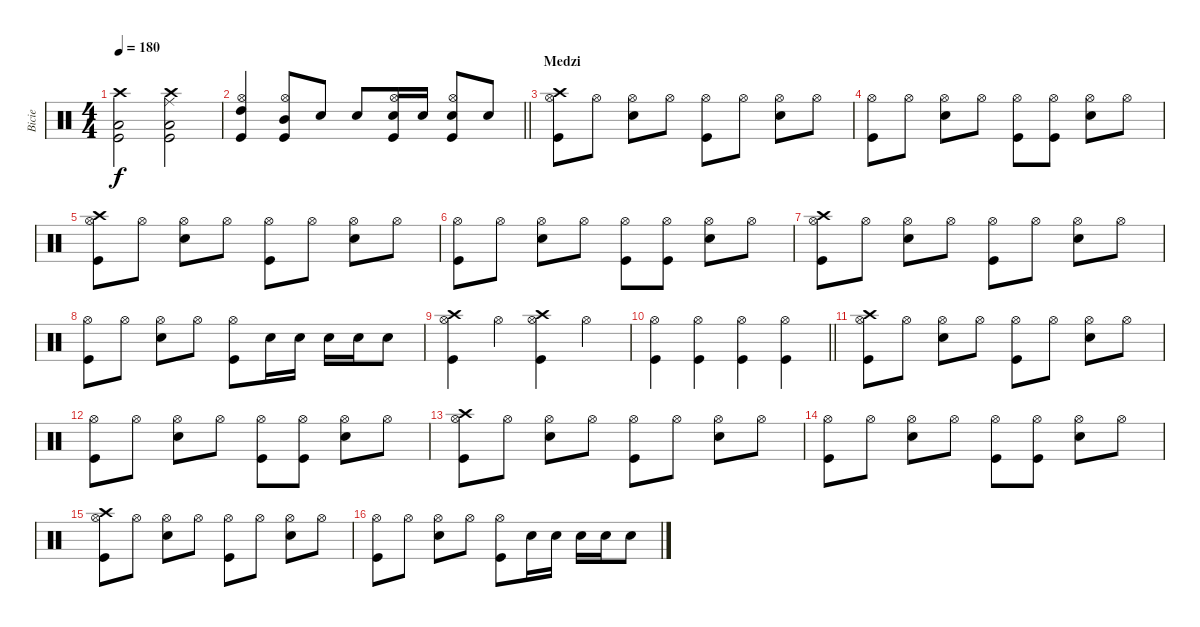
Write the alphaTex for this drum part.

\track ("Bicie" "Bicie") {instrument percussion}
\staff {score}
\articulation defaults
\ts (4 4)
\tempo 180
\clef neutral
\ks c
("Crash high (hit)" "Low Tom (hit)" "Kick (hit)").2{dy f} ("Crash high (hit)" "Ride (middle)" "Low Tom (hit)" "Kick (hit)").2 |
\barLineRight lightlight
("Hi-Hat (open)" "High Tom (hit)" "Kick (hit)").4 ("Hi-Hat (open)" "Mid Tom (hit)" "Kick (hit)").8 "Snare (hit) 2".8 "Snare (hit) 2".8 ("Hi-Hat (open)" "Snare (hit) 2" "Kick (hit)").16 "Snare (hit) 2".16 ("Hi-Hat (open)" "Snare (hit) 2" "Kick (hit)").8 "Snare (hit) 2".8 |
\section ("" "Medzi")
("Crash high (hit)" "Hi-Hat (open)" "Kick (hit)").8 "Hi-Hat (open)".8 ("Hi-Hat (open)" "Snare (hit) 2").8 "Hi-Hat (open)".8 ("Hi-Hat (open)" "Kick (hit)").8 "Hi-Hat (open)".8 ("Hi-Hat (open)" "Snare (hit) 2").8 "Hi-Hat (open)".8 |
("Hi-Hat (open)" "Kick (hit)").8 "Hi-Hat (open)".8 ("Hi-Hat (open)" "Snare (hit) 2").8 "Hi-Hat (open)".8 ("Hi-Hat (open)" "Kick (hit)").8 ("Hi-Hat (open)" "Kick (hit)").8 ("Hi-Hat (open)" "Snare (hit) 2").8 "Hi-Hat (open)".8 |
("Crash high (hit)" "Hi-Hat (open)" "Kick (hit)").8 "Hi-Hat (open)".8 ("Hi-Hat (open)" "Snare (hit) 2").8 "Hi-Hat (open)".8 ("Hi-Hat (open)" "Kick (hit)").8 "Hi-Hat (open)".8 ("Hi-Hat (open)" "Snare (hit) 2").8 "Hi-Hat (open)".8 |
("Hi-Hat (open)" "Kick (hit)").8 "Hi-Hat (open)".8 ("Hi-Hat (open)" "Snare (hit) 2").8 "Hi-Hat (open)".8 ("Hi-Hat (open)" "Kick (hit)").8 ("Hi-Hat (open)" "Kick (hit)").8 ("Hi-Hat (open)" "Snare (hit) 2").8 "Hi-Hat (open)".8 |
("Crash high (hit)" "Hi-Hat (open)" "Kick (hit)").8 "Hi-Hat (open)".8 ("Hi-Hat (open)" "Snare (hit) 2").8 "Hi-Hat (open)".8 ("Hi-Hat (open)" "Kick (hit)").8 "Hi-Hat (open)".8 ("Hi-Hat (open)" "Snare (hit) 2").8 "Hi-Hat (open)".8 |
("Hi-Hat (open)" "Kick (hit)").8 "Hi-Hat (open)".8 ("Hi-Hat (open)" "Snare (hit) 2").8 "Hi-Hat (open)".8 ("Hi-Hat (open)" "Kick (hit)").8 "Snare (hit) 2".16 "Snare (hit) 2".16 "Snare (hit) 2".16 "Snare (hit) 2".16 "Snare (hit) 2".8 |
("Crash high (hit)" "Hi-Hat (open)" "Kick (hit)").4 "Hi-Hat (open)".4 ("Crash high (hit)" "Hi-Hat (open)" "Kick (hit)").4 "Hi-Hat (open)".4 |
\barLineRight lightlight
("Hi-Hat (open)" "Kick (hit)").4 ("Hi-Hat (open)" "Kick (hit)").4 ("Hi-Hat (open)" "Kick (hit)").4 ("Hi-Hat (open)" "Kick (hit)").4 |
("Crash high (hit)" "Hi-Hat (open)" "Kick (hit)").8 "Hi-Hat (open)".8 ("Hi-Hat (open)" "Snare (hit) 2").8 "Hi-Hat (open)".8 ("Hi-Hat (open)" "Kick (hit)").8 "Hi-Hat (open)".8 ("Hi-Hat (open)" "Snare (hit) 2").8 "Hi-Hat (open)".8 |
("Hi-Hat (open)" "Kick (hit)").8 "Hi-Hat (open)".8 ("Hi-Hat (open)" "Snare (hit) 2").8 "Hi-Hat (open)".8 ("Hi-Hat (open)" "Kick (hit)").8 ("Hi-Hat (open)" "Kick (hit)").8 ("Hi-Hat (open)" "Snare (hit) 2").8 "Hi-Hat (open)".8 |
("Crash high (hit)" "Hi-Hat (open)" "Kick (hit)").8 "Hi-Hat (open)".8 ("Hi-Hat (open)" "Snare (hit) 2").8 "Hi-Hat (open)".8 ("Hi-Hat (open)" "Kick (hit)").8 "Hi-Hat (open)".8 ("Hi-Hat (open)" "Snare (hit) 2").8 "Hi-Hat (open)".8 |
("Hi-Hat (open)" "Kick (hit)").8 "Hi-Hat (open)".8 ("Hi-Hat (open)" "Snare (hit) 2").8 "Hi-Hat (open)".8 ("Hi-Hat (open)" "Kick (hit)").8 ("Hi-Hat (open)" "Kick (hit)").8 ("Hi-Hat (open)" "Snare (hit) 2").8 "Hi-Hat (open)".8 |
("Crash high (hit)" "Hi-Hat (open)" "Kick (hit)").8 "Hi-Hat (open)".8 ("Hi-Hat (open)" "Snare (hit) 2").8 "Hi-Hat (open)".8 ("Hi-Hat (open)" "Kick (hit)").8 "Hi-Hat (open)".8 ("Hi-Hat (open)" "Snare (hit) 2").8 "Hi-Hat (open)".8 |
("Hi-Hat (open)" "Kick (hit)").8 "Hi-Hat (open)".8 ("Hi-Hat (open)" "Snare (hit) 2").8 "Hi-Hat (open)".8 ("Hi-Hat (open)" "Kick (hit)").8 "Snare (hit) 2".16 "Snare (hit) 2".16 "Snare (hit) 2".16 "Snare (hit) 2".16 "Snare (hit) 2".8
